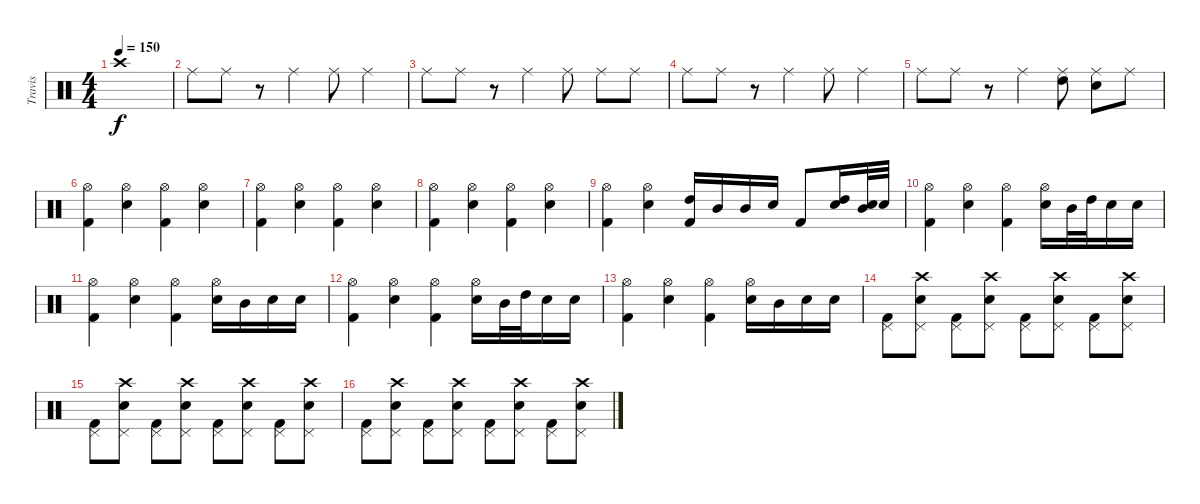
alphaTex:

\track ("Travis" "Travis") {instrument percussion}
\staff {score}
\articulation defaults
\ts (4 4)
\tempo 150
\clef neutral
\ks c "Crash high (hit)".1{dy f}
|
"Ride (middle)".8 "Ride (middle)".8 r.8 "Ride (middle)".4 "Ride (middle)".8 "Ride (middle)".4 |
"Ride (middle)".8 "Ride (middle)".8 r.8 "Ride (middle)".4 "Ride (middle)".8 "Ride (middle)".8 "Ride (middle)".8 |
"Ride (middle)".8 "Ride (middle)".8 r.8 "Ride (middle)".4 "Ride (middle)".8 "Ride (middle)".4 |
"Ride (middle)".8 "Ride (middle)".8 r.8 "Ride (middle)".4 ("Ride (middle)" "High Tom (hit)").8 ("Ride (middle)" "Electric Snare (hit)").8 "Ride (middle)".8 |
("Hi-Hat (open)" "Kick (hit) 2").4 ("Hi-Hat (open)" "Electric Snare (hit)").4 ("Hi-Hat (open)" "Kick (hit) 2").4 ("Hi-Hat (open)" "Electric Snare (hit)").4 |
("Hi-Hat (open)" "Kick (hit) 2").4 ("Hi-Hat (open)" "Electric Snare (hit)").4 ("Hi-Hat (open)" "Kick (hit) 2").4 ("Hi-Hat (open)" "Electric Snare (hit)").4 |
("Hi-Hat (open)" "Kick (hit) 2").4 ("Hi-Hat (open)" "Electric Snare (hit)").4 ("Hi-Hat (open)" "Kick (hit) 2").4 ("Hi-Hat (open)" "Electric Snare (hit)").4 |
("Hi-Hat (open)" "Kick (hit) 2").4 ("Hi-Hat (open)" "Electric Snare (hit)").4 ("High Tom (hit)" "Kick (hit) 2").16 "Mid Tom (hit)".16 "Mid Tom (hit)".16 "Electric Snare (hit)".16 "Kick (hit) 2".8 ("Electric Snare (hit)" "High Tom (hit)").16 ("Electric Snare (hit)" "Mid Tom (hit)").32 "Electric Snare (hit)".32 |
("Hi-Hat (open)" "Kick (hit) 2").4 ("Hi-Hat (open)" "Electric Snare (hit)").4 ("Hi-Hat (open)" "Kick (hit) 2").4 ("Hi-Hat (open)" "Electric Snare (hit)").16 "Mid Tom (hit)".32 "High Tom (hit)".32 "Electric Snare (hit)".16 "Electric Snare (hit)".16 |
("Hi-Hat (open)" "Kick (hit) 2").4 ("Hi-Hat (open)" "Electric Snare (hit)").4 ("Hi-Hat (open)" "Kick (hit) 2").4 ("Hi-Hat (open)" "Electric Snare (hit)").16 "Mid Tom (hit)".16 "Electric Snare (hit)".16 "Electric Snare (hit)".16 |
("Hi-Hat (open)" "Kick (hit) 2").4 ("Hi-Hat (open)" "Electric Snare (hit)").4 ("Hi-Hat (open)" "Kick (hit) 2").4 ("Hi-Hat (open)" "Electric Snare (hit)").16 "Mid Tom (hit)".32 "High Tom (hit)".32 "Electric Snare (hit)".16 "Electric Snare (hit)".16 |
("Hi-Hat (open)" "Kick (hit) 2").4 ("Hi-Hat (open)" "Electric Snare (hit)").4 ("Hi-Hat (open)" "Kick (hit) 2").4 ("Hi-Hat (open)" "Electric Snare (hit)").16 "Mid Tom (hit)".16 "Electric Snare (hit)".16 "Electric Snare (hit)".16 |
("Pedal Hi-Hat (hit)" "Kick (hit) 2").8 ("Pedal Hi-Hat (hit)" "Crash high (hit)" "Electric Snare (hit)").8 ("Pedal Hi-Hat (hit)" "Kick (hit) 2").8 ("Pedal Hi-Hat (hit)" "Crash high (hit)" "Electric Snare (hit)").8 ("Pedal Hi-Hat (hit)" "Kick (hit) 2").8 ("Pedal Hi-Hat (hit)" "Crash high (hit)" "Electric Snare (hit)").8 ("Pedal Hi-Hat (hit)" "Kick (hit) 2").8 ("Pedal Hi-Hat (hit)" "Crash high (hit)" "Electric Snare (hit)").8 |
("Pedal Hi-Hat (hit)" "Kick (hit) 2").8 ("Pedal Hi-Hat (hit)" "Crash high (hit)" "Electric Snare (hit)").8 ("Pedal Hi-Hat (hit)" "Kick (hit) 2").8 ("Pedal Hi-Hat (hit)" "Crash high (hit)" "Electric Snare (hit)").8 ("Pedal Hi-Hat (hit)" "Kick (hit) 2").8 ("Pedal Hi-Hat (hit)" "Crash high (hit)" "Electric Snare (hit)").8 ("Pedal Hi-Hat (hit)" "Kick (hit) 2").8 ("Pedal Hi-Hat (hit)" "Crash high (hit)" "Electric Snare (hit)").8 |
("Pedal Hi-Hat (hit)" "Kick (hit) 2").8 ("Pedal Hi-Hat (hit)" "Crash high (hit)" "Electric Snare (hit)").8 ("Pedal Hi-Hat (hit)" "Kick (hit) 2").8 ("Pedal Hi-Hat (hit)" "Crash high (hit)" "Electric Snare (hit)").8 ("Pedal Hi-Hat (hit)" "Kick (hit) 2").8 ("Pedal Hi-Hat (hit)" "Crash high (hit)" "Electric Snare (hit)").8 ("Pedal Hi-Hat (hit)" "Kick (hit) 2").8 ("Pedal Hi-Hat (hit)" "Crash high (hit)" "Electric Snare (hit)").8
